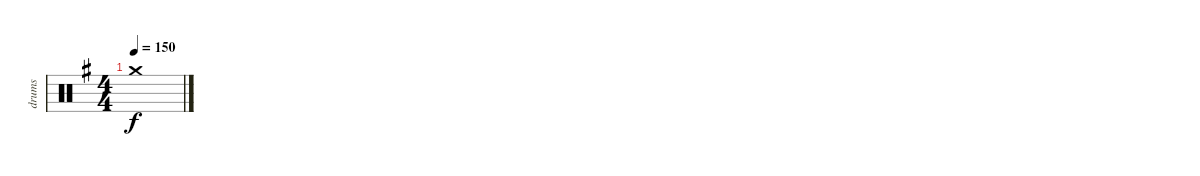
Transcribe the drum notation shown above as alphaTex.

\track ("drums" "drums") {instrument percussion}
\staff {score}
\articulation defaults
\ts (4 4)
\tempo 150
\clef neutral
\ks g "Crash medium (hit)".1{dy f}
